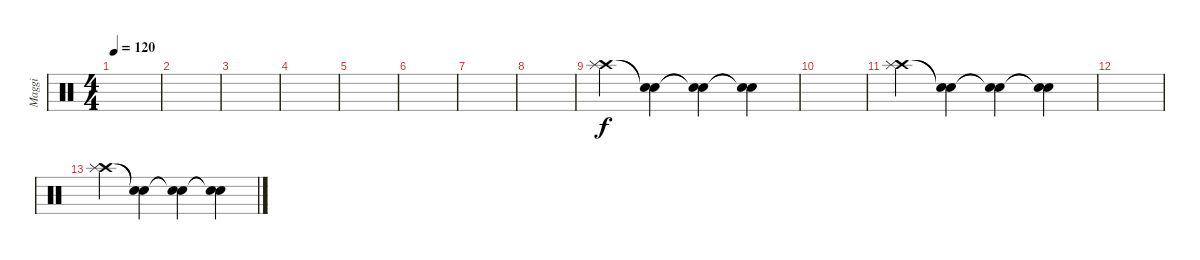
\track ("Maggi" "Maggi") {instrument percussion}
\staff {score}
\articulation defaults
\ts (4 4)
\tempo 120
\clef neutral
\ks c
|
|
|
|
|
|
|
|
("Crash high (hit)" "Splash (hit)").4 ("Snare (hit)"{t} "Snare (hit)"{t}).4 ("Snare (hit)"{t} "Snare (hit)"{t}).4 ("Snare (hit)"{t} "Snare (hit)"{t}).4 |
|
("Crash high (hit)" "Splash (hit)").4 ("Snare (hit)"{t} "Snare (hit)"{t}).4 ("Snare (hit)"{t} "Snare (hit)"{t}).4 ("Snare (hit)"{t} "Snare (hit)"{t}).4 |
|
("Crash high (hit)" "Splash (hit)").4 ("Snare (hit)"{t} "Snare (hit)"{t}).4 ("Snare (hit)"{t} "Snare (hit)"{t}).4 ("Snare (hit)"{t} "Snare (hit)"{t}).4
